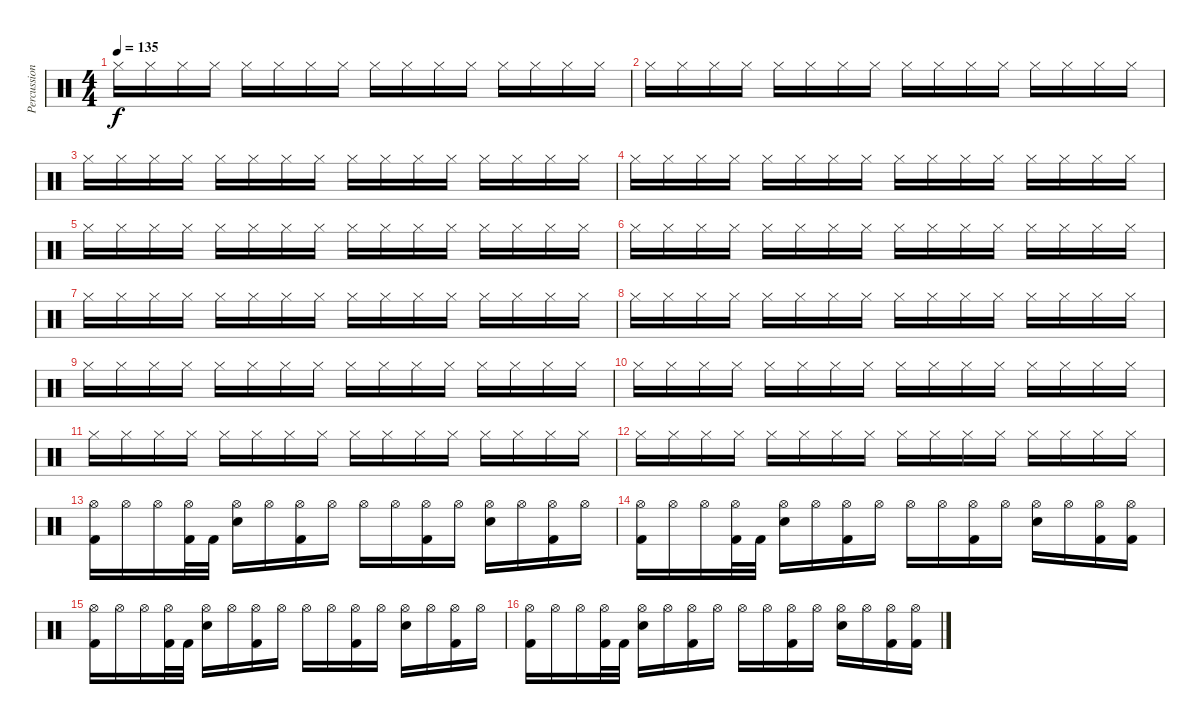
\track ("Percussion" "Percussion") {instrument percussion}
\staff {score}
\articulation defaults
\ts (4 4)
\tempo 135
\clef neutral
\ks c "Hi-Hat (closed)".16{dy f} "Hi-Hat (closed)".16 "Hi-Hat (closed)".16 "Hi-Hat (closed)".16 "Hi-Hat (closed)".16 "Hi-Hat (closed)".16 "Hi-Hat (closed)".16 "Hi-Hat (closed)".16 "Hi-Hat (closed)".16 "Hi-Hat (closed)".16 "Hi-Hat (closed)".16 "Hi-Hat (closed)".16 "Hi-Hat (closed)".16 "Hi-Hat (closed)".16 "Hi-Hat (closed)".16 "Hi-Hat (closed)".16
|
"Hi-Hat (closed)".16 "Hi-Hat (closed)".16 "Hi-Hat (closed)".16 "Hi-Hat (closed)".16 "Hi-Hat (closed)".16 "Hi-Hat (closed)".16 "Hi-Hat (closed)".16 "Hi-Hat (closed)".16 "Hi-Hat (closed)".16 "Hi-Hat (closed)".16 "Hi-Hat (closed)".16 "Hi-Hat (closed)".16 "Hi-Hat (closed)".16 "Hi-Hat (closed)".16 "Hi-Hat (closed)".16 "Hi-Hat (closed)".16 |
"Hi-Hat (closed)".16 "Hi-Hat (closed)".16 "Hi-Hat (closed)".16 "Hi-Hat (closed)".16 "Hi-Hat (closed)".16 "Hi-Hat (closed)".16 "Hi-Hat (closed)".16 "Hi-Hat (closed)".16 "Hi-Hat (closed)".16 "Hi-Hat (closed)".16 "Hi-Hat (closed)".16 "Hi-Hat (closed)".16 "Hi-Hat (closed)".16 "Hi-Hat (closed)".16 "Hi-Hat (closed)".16 "Hi-Hat (closed)".16 |
"Hi-Hat (closed)".16 "Hi-Hat (closed)".16 "Hi-Hat (closed)".16 "Hi-Hat (closed)".16 "Hi-Hat (closed)".16 "Hi-Hat (closed)".16 "Hi-Hat (closed)".16 "Hi-Hat (closed)".16 "Hi-Hat (closed)".16 "Hi-Hat (closed)".16 "Hi-Hat (closed)".16 "Hi-Hat (closed)".16 "Hi-Hat (closed)".16 "Hi-Hat (closed)".16 "Hi-Hat (closed)".16 "Hi-Hat (closed)".16 |
"Hi-Hat (closed)".16 "Hi-Hat (closed)".16 "Hi-Hat (closed)".16 "Hi-Hat (closed)".16 "Hi-Hat (closed)".16 "Hi-Hat (closed)".16 "Hi-Hat (closed)".16 "Hi-Hat (closed)".16 "Hi-Hat (closed)".16 "Hi-Hat (closed)".16 "Hi-Hat (closed)".16 "Hi-Hat (closed)".16 "Hi-Hat (closed)".16 "Hi-Hat (closed)".16 "Hi-Hat (closed)".16 "Hi-Hat (closed)".16 |
"Hi-Hat (closed)".16 "Hi-Hat (closed)".16 "Hi-Hat (closed)".16 "Hi-Hat (closed)".16 "Hi-Hat (closed)".16 "Hi-Hat (closed)".16 "Hi-Hat (closed)".16 "Hi-Hat (closed)".16 "Hi-Hat (closed)".16 "Hi-Hat (closed)".16 "Hi-Hat (closed)".16 "Hi-Hat (closed)".16 "Hi-Hat (closed)".16 "Hi-Hat (closed)".16 "Hi-Hat (closed)".16 "Hi-Hat (closed)".16 |
"Hi-Hat (closed)".16 "Hi-Hat (closed)".16 "Hi-Hat (closed)".16 "Hi-Hat (closed)".16 "Hi-Hat (closed)".16 "Hi-Hat (closed)".16 "Hi-Hat (closed)".16 "Hi-Hat (closed)".16 "Hi-Hat (closed)".16 "Hi-Hat (closed)".16 "Hi-Hat (closed)".16 "Hi-Hat (closed)".16 "Hi-Hat (closed)".16 "Hi-Hat (closed)".16 "Hi-Hat (closed)".16 "Hi-Hat (closed)".16 |
"Hi-Hat (closed)".16 "Hi-Hat (closed)".16 "Hi-Hat (closed)".16 "Hi-Hat (closed)".16 "Hi-Hat (closed)".16 "Hi-Hat (closed)".16 "Hi-Hat (closed)".16 "Hi-Hat (closed)".16 "Hi-Hat (closed)".16 "Hi-Hat (closed)".16 "Hi-Hat (closed)".16 "Hi-Hat (closed)".16 "Hi-Hat (closed)".16 "Hi-Hat (closed)".16 "Hi-Hat (closed)".16 "Hi-Hat (closed)".16 |
"Hi-Hat (closed)".16 "Hi-Hat (closed)".16 "Hi-Hat (closed)".16 "Hi-Hat (closed)".16 "Hi-Hat (closed)".16 "Hi-Hat (closed)".16 "Hi-Hat (closed)".16 "Hi-Hat (closed)".16 "Hi-Hat (closed)".16 "Hi-Hat (closed)".16 "Hi-Hat (closed)".16 "Hi-Hat (closed)".16 "Hi-Hat (closed)".16 "Hi-Hat (closed)".16 "Hi-Hat (closed)".16 "Hi-Hat (closed)".16 |
"Hi-Hat (closed)".16 "Hi-Hat (closed)".16 "Hi-Hat (closed)".16 "Hi-Hat (closed)".16 "Hi-Hat (closed)".16 "Hi-Hat (closed)".16 "Hi-Hat (closed)".16 "Hi-Hat (closed)".16 "Hi-Hat (closed)".16 "Hi-Hat (closed)".16 "Hi-Hat (closed)".16 "Hi-Hat (closed)".16 "Hi-Hat (closed)".16 "Hi-Hat (closed)".16 "Hi-Hat (closed)".16 "Hi-Hat (closed)".16 |
"Hi-Hat (closed)".16 "Hi-Hat (closed)".16 "Hi-Hat (closed)".16 "Hi-Hat (closed)".16 "Hi-Hat (closed)".16 "Hi-Hat (closed)".16 "Hi-Hat (closed)".16 "Hi-Hat (closed)".16 "Hi-Hat (closed)".16 "Hi-Hat (closed)".16 "Hi-Hat (closed)".16 "Hi-Hat (closed)".16 "Hi-Hat (closed)".16 "Hi-Hat (closed)".16 "Hi-Hat (closed)".16 "Hi-Hat (closed)".16 |
"Hi-Hat (closed)".16 "Hi-Hat (closed)".16 "Hi-Hat (closed)".16 "Hi-Hat (closed)".16 "Hi-Hat (closed)".16 "Hi-Hat (closed)".16 "Hi-Hat (closed)".16 "Hi-Hat (closed)".16 "Hi-Hat (closed)".16 "Hi-Hat (closed)".16 "Hi-Hat (closed)".16 "Hi-Hat (closed)".16 "Hi-Hat (closed)".16 "Hi-Hat (closed)".16 "Hi-Hat (closed)".16 "Hi-Hat (closed)".16 |
("Hi-Hat (open)" "Kick (hit) 2").16 "Hi-Hat (open)".16 "Hi-Hat (open)".16 ("Hi-Hat (open)" "Kick (hit) 2").32 "Kick (hit) 2".32 ("Hi-Hat (open)" "Snare (hit) 2").16 "Hi-Hat (open)".16 ("Hi-Hat (open)" "Kick (hit) 2").16 "Hi-Hat (open)".16 "Hi-Hat (open)".16 "Hi-Hat (open)".16 ("Hi-Hat (open)" "Kick (hit) 2").16 "Hi-Hat (open)".16 ("Hi-Hat (open)" "Snare (hit) 2").16 "Hi-Hat (open)".16 ("Hi-Hat (open)" "Kick (hit) 2").16 "Hi-Hat (open)".16 |
("Hi-Hat (open)" "Kick (hit) 2").16 "Hi-Hat (open)".16 "Hi-Hat (open)".16 ("Hi-Hat (open)" "Kick (hit) 2").32 "Kick (hit) 2".32 ("Hi-Hat (open)" "Snare (hit) 2").16 "Hi-Hat (open)".16 ("Hi-Hat (open)" "Kick (hit) 2").16 "Hi-Hat (open)".16 "Hi-Hat (open)".16 "Hi-Hat (open)".16 ("Hi-Hat (open)" "Kick (hit) 2").16 "Hi-Hat (open)".16 ("Hi-Hat (open)" "Snare (hit) 2").16 "Hi-Hat (open)".16 ("Hi-Hat (open)" "Kick (hit) 2").16 ("Hi-Hat (open)" "Kick (hit) 2").16 |
("Hi-Hat (open)" "Kick (hit) 2").16 "Hi-Hat (open)".16 "Hi-Hat (open)".16 ("Hi-Hat (open)" "Kick (hit) 2").32 "Kick (hit) 2".32 ("Hi-Hat (open)" "Snare (hit) 2").16 "Hi-Hat (open)".16 ("Hi-Hat (open)" "Kick (hit) 2").16 "Hi-Hat (open)".16 "Hi-Hat (open)".16 "Hi-Hat (open)".16 ("Hi-Hat (open)" "Kick (hit) 2").16 "Hi-Hat (open)".16 ("Hi-Hat (open)" "Snare (hit) 2").16 "Hi-Hat (open)".16 ("Hi-Hat (open)" "Kick (hit) 2").16 "Hi-Hat (open)".16 |
("Hi-Hat (open)" "Kick (hit) 2").16 "Hi-Hat (open)".16 "Hi-Hat (open)".16 ("Hi-Hat (open)" "Kick (hit) 2").32 "Kick (hit) 2".32 ("Hi-Hat (open)" "Snare (hit) 2").16 "Hi-Hat (open)".16 ("Hi-Hat (open)" "Kick (hit) 2").16 "Hi-Hat (open)".16 "Hi-Hat (open)".16 "Hi-Hat (open)".16 ("Hi-Hat (open)" "Kick (hit) 2").16 "Hi-Hat (open)".16 ("Hi-Hat (open)" "Snare (hit) 2").16 "Hi-Hat (open)".16 ("Hi-Hat (open)" "Kick (hit) 2").16 ("Hi-Hat (open)" "Kick (hit) 2").16
